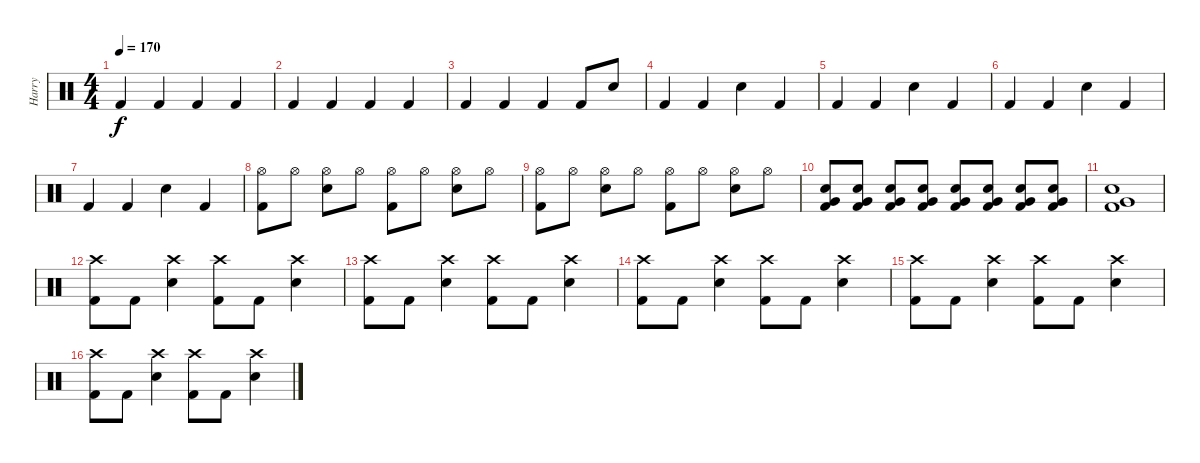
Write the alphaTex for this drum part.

\track ("Harry" "Harry") {instrument percussion}
\staff {score}
\articulation defaults
\ts (4 4)
\tempo 170
\clef neutral
\ks c "Kick (hit) 2".4{dy f} "Kick (hit) 2".4 "Kick (hit) 2".4 "Kick (hit) 2".4
|
"Kick (hit) 2".4 "Kick (hit) 2".4 "Kick (hit) 2".4 "Kick (hit) 2".4 |
"Kick (hit) 2".4 "Kick (hit) 2".4 "Kick (hit) 2".4 "Kick (hit) 2".8 "Snare (hit) 2".8 |
"Kick (hit) 2".4 "Kick (hit) 2".4 "Snare (hit) 2".4 "Kick (hit) 2".4 |
"Kick (hit) 2".4 "Kick (hit) 2".4 "Snare (hit) 2".4 "Kick (hit) 2".4 |
"Kick (hit) 2".4 "Kick (hit) 2".4 "Snare (hit) 2".4 "Kick (hit) 2".4 |
"Kick (hit) 2".4 "Kick (hit) 2".4 "Snare (hit) 2".4 "Kick (hit) 2".4 |
("Hi-Hat (open)" "Kick (hit) 2").8 "Hi-Hat (open)".8 ("Hi-Hat (open)" "Snare (hit) 2").8 "Hi-Hat (open)".8 ("Hi-Hat (open)" "Kick (hit) 2").8 "Hi-Hat (open)".8 ("Hi-Hat (open)" "Snare (hit) 2").8 "Hi-Hat (open)".8 |
("Hi-Hat (open)" "Kick (hit) 2").8 "Hi-Hat (open)".8 ("Hi-Hat (open)" "Snare (hit) 2").8 "Hi-Hat (open)".8 ("Hi-Hat (open)" "Kick (hit) 2").8 "Hi-Hat (open)".8 ("Hi-Hat (open)" "Snare (hit) 2").8 "Hi-Hat (open)".8 |
("Kick (hit) 2" "Snare (hit) 2" "Very Low Tom (hit)").8 ("Kick (hit) 2" "Snare (hit) 2" "Very Low Tom (hit)").8 ("Kick (hit) 2" "Snare (hit) 2" "Very Low Tom (hit)").8 ("Kick (hit) 2" "Snare (hit) 2" "Very Low Tom (hit)").8 ("Kick (hit) 2" "Snare (hit) 2" "Very Low Tom (hit)").8 ("Kick (hit) 2" "Snare (hit) 2" "Very Low Tom (hit)").8 ("Kick (hit) 2" "Snare (hit) 2" "Very Low Tom (hit)").8 ("Kick (hit) 2" "Snare (hit) 2" "Very Low Tom (hit)").8 |
("Kick (hit) 2" "Snare (hit) 2" "Very Low Tom (hit)").1 |
("Kick (hit) 2" "Crash high (hit)").8 "Kick (hit) 2".8 ("Snare (hit) 2" "Crash high (hit)").4 ("Kick (hit) 2" "Crash high (hit)").8 "Kick (hit) 2".8 ("Snare (hit) 2" "Crash high (hit)").4 |
("Kick (hit) 2" "Crash high (hit)").8 "Kick (hit) 2".8 ("Snare (hit) 2" "Crash high (hit)").4 ("Kick (hit) 2" "Crash high (hit)").8 "Kick (hit) 2".8 ("Snare (hit) 2" "Crash high (hit)").4 |
("Kick (hit) 2" "Crash high (hit)").8 "Kick (hit) 2".8 ("Snare (hit) 2" "Crash high (hit)").4 ("Kick (hit) 2" "Crash high (hit)").8 "Kick (hit) 2".8 ("Snare (hit) 2" "Crash high (hit)").4 |
("Kick (hit) 2" "Crash high (hit)").8 "Kick (hit) 2".8 ("Snare (hit) 2" "Crash high (hit)").4 ("Kick (hit) 2" "Crash high (hit)").8 "Kick (hit) 2".8 ("Snare (hit) 2" "Crash high (hit)").4 |
("Kick (hit) 2" "Crash high (hit)").8 "Kick (hit) 2".8 ("Snare (hit) 2" "Crash high (hit)").4 ("Kick (hit) 2" "Crash high (hit)").8 "Kick (hit) 2".8 ("Snare (hit) 2" "Crash high (hit)").4
